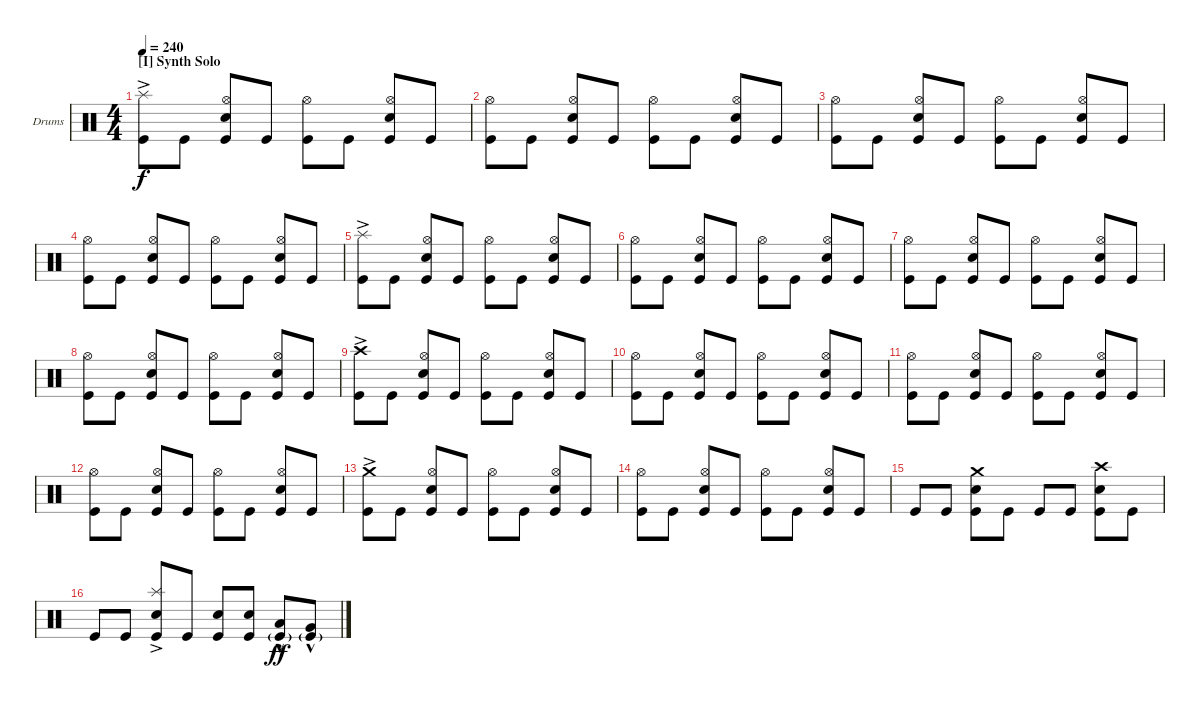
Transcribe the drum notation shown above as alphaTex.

\defaultSystemsLayout 4
\bracketExtendMode groupsimilarinstruments
\firstSystemTrackNameOrientation horizontal
\otherSystemsTrackNameOrientation horizontal
\track ("Drumkit" "Drums") {instrument percussion}
\staff {score}
\articulation defaults
\ts (4 4)
\section ("I" "Synth Solo")
\tempo 240
\clef neutral
\ks c
("Kick (hit)" "Splash (hit)"{ac}).8{dy f} "Kick (hit)".8 ("Kick (hit)" "Hi-Hat (open)" "Snare (hit) 2").8 "Kick (hit)".8 ("Kick (hit)" "Hi-Hat (open)").8 "Kick (hit)".8 ("Kick (hit)" "Hi-Hat (open)" "Snare (hit) 2").8 "Kick (hit)".8 |
("Kick (hit)" "Hi-Hat (open)").8 "Kick (hit)".8 ("Kick (hit)" "Hi-Hat (open)" "Snare (hit) 2").8 "Kick (hit)".8 ("Kick (hit)" "Hi-Hat (open)").8 "Kick (hit)".8 ("Kick (hit)" "Hi-Hat (open)" "Snare (hit) 2").8 "Kick (hit)".8 |
("Kick (hit)" "Hi-Hat (open)").8 "Kick (hit)".8 ("Kick (hit)" "Hi-Hat (open)" "Snare (hit) 2").8 "Kick (hit)".8 ("Kick (hit)" "Hi-Hat (open)").8 "Kick (hit)".8 ("Kick (hit)" "Hi-Hat (open)" "Snare (hit) 2").8 "Kick (hit)".8 |
("Kick (hit)" "Hi-Hat (open)").8 "Kick (hit)".8 ("Kick (hit)" "Hi-Hat (open)" "Snare (hit) 2").8 "Kick (hit)".8 ("Kick (hit)" "Hi-Hat (open)").8 "Kick (hit)".8 ("Kick (hit)" "Hi-Hat (open)" "Snare (hit) 2").8 "Kick (hit)".8 |
("Kick (hit)" "Splash (hit)"{ac}).8 "Kick (hit)".8 ("Kick (hit)" "Hi-Hat (open)" "Snare (hit) 2").8 "Kick (hit)".8 ("Kick (hit)" "Hi-Hat (open)").8 "Kick (hit)".8 ("Kick (hit)" "Hi-Hat (open)" "Snare (hit) 2").8 "Kick (hit)".8 |
("Kick (hit)" "Hi-Hat (open)").8 "Kick (hit)".8 ("Kick (hit)" "Hi-Hat (open)" "Snare (hit) 2").8 "Kick (hit)".8 ("Kick (hit)" "Hi-Hat (open)").8 "Kick (hit)".8 ("Kick (hit)" "Hi-Hat (open)" "Snare (hit) 2").8 "Kick (hit)".8 |
("Kick (hit)" "Hi-Hat (open)").8 "Kick (hit)".8 ("Kick (hit)" "Hi-Hat (open)" "Snare (hit) 2").8 "Kick (hit)".8 ("Kick (hit)" "Hi-Hat (open)").8 "Kick (hit)".8 ("Kick (hit)" "Hi-Hat (open)" "Snare (hit) 2").8 "Kick (hit)".8 |
("Kick (hit)" "Hi-Hat (open)").8 "Kick (hit)".8 ("Kick (hit)" "Hi-Hat (open)" "Snare (hit) 2").8 "Kick (hit)".8 ("Kick (hit)" "Hi-Hat (open)").8 "Kick (hit)".8 ("Kick (hit)" "Hi-Hat (open)" "Snare (hit) 2").8 "Kick (hit)".8 |
("Kick (hit)" "Crash high (hit)"{ac}).8 "Kick (hit)".8 ("Kick (hit)" "Hi-Hat (open)" "Snare (hit) 2").8 "Kick (hit)".8 ("Kick (hit)" "Hi-Hat (open)").8 "Kick (hit)".8 ("Kick (hit)" "Hi-Hat (open)" "Snare (hit) 2").8 "Kick (hit)".8 |
("Kick (hit)" "Hi-Hat (open)").8 "Kick (hit)".8 ("Kick (hit)" "Hi-Hat (open)" "Snare (hit) 2").8 "Kick (hit)".8 ("Kick (hit)" "Hi-Hat (open)").8 "Kick (hit)".8 ("Kick (hit)" "Hi-Hat (open)" "Snare (hit) 2").8 "Kick (hit)".8 |
("Kick (hit)" "Hi-Hat (open)").8 "Kick (hit)".8 ("Kick (hit)" "Hi-Hat (open)" "Snare (hit) 2").8 "Kick (hit)".8 ("Kick (hit)" "Hi-Hat (open)").8 "Kick (hit)".8 ("Kick (hit)" "Hi-Hat (open)" "Snare (hit) 2").8 "Kick (hit)".8 |
("Kick (hit)" "Hi-Hat (open)").8 "Kick (hit)".8 ("Kick (hit)" "Hi-Hat (open)" "Snare (hit) 2").8 "Kick (hit)".8 ("Kick (hit)" "Hi-Hat (open)").8 "Kick (hit)".8 ("Kick (hit)" "Hi-Hat (open)" "Snare (hit) 2").8 "Kick (hit)".8 |
("Kick (hit)" "Crash medium (hit)"{ac}).8 "Kick (hit)".8 ("Kick (hit)" "Hi-Hat (open)" "Snare (hit) 2").8 "Kick (hit)".8 ("Kick (hit)" "Hi-Hat (open)").8 "Kick (hit)".8 ("Kick (hit)" "Hi-Hat (open)" "Snare (hit) 2").8 "Kick (hit)".8 |
("Kick (hit)" "Hi-Hat (open)").8 "Kick (hit)".8 ("Kick (hit)" "Hi-Hat (open)" "Snare (hit) 2").8 "Kick (hit)".8 ("Kick (hit)" "Hi-Hat (open)").8 "Kick (hit)".8 ("Kick (hit)" "Hi-Hat (open)" "Snare (hit) 2").8 "Kick (hit)".8 |
"Kick (hit)".8 "Kick (hit)".8 ("Kick (hit)" "Snare (hit) 2" "Crash medium (hit)").8 "Kick (hit)".8 "Kick (hit)".8 "Kick (hit)".8 ("Kick (hit)" "Snare (hit) 2" "Crash high (hit)").8 "Kick (hit)".8 |
"Kick (hit)".8 "Kick (hit)".8 ("Kick (hit)" "Snare (hit) 2" "Splash (hit)"{ac}).8 "Kick (hit)".8 ("Kick (hit)" "Snare (hit) 2").8 ("Kick (hit)" "Snare (hit) 2").8 ("Kick (hit)"{g} "Low Tom (hit)"{hac}).8{dy ff} ("Kick (hit)"{g} "Very Low Tom (hit)"{hac}).8
